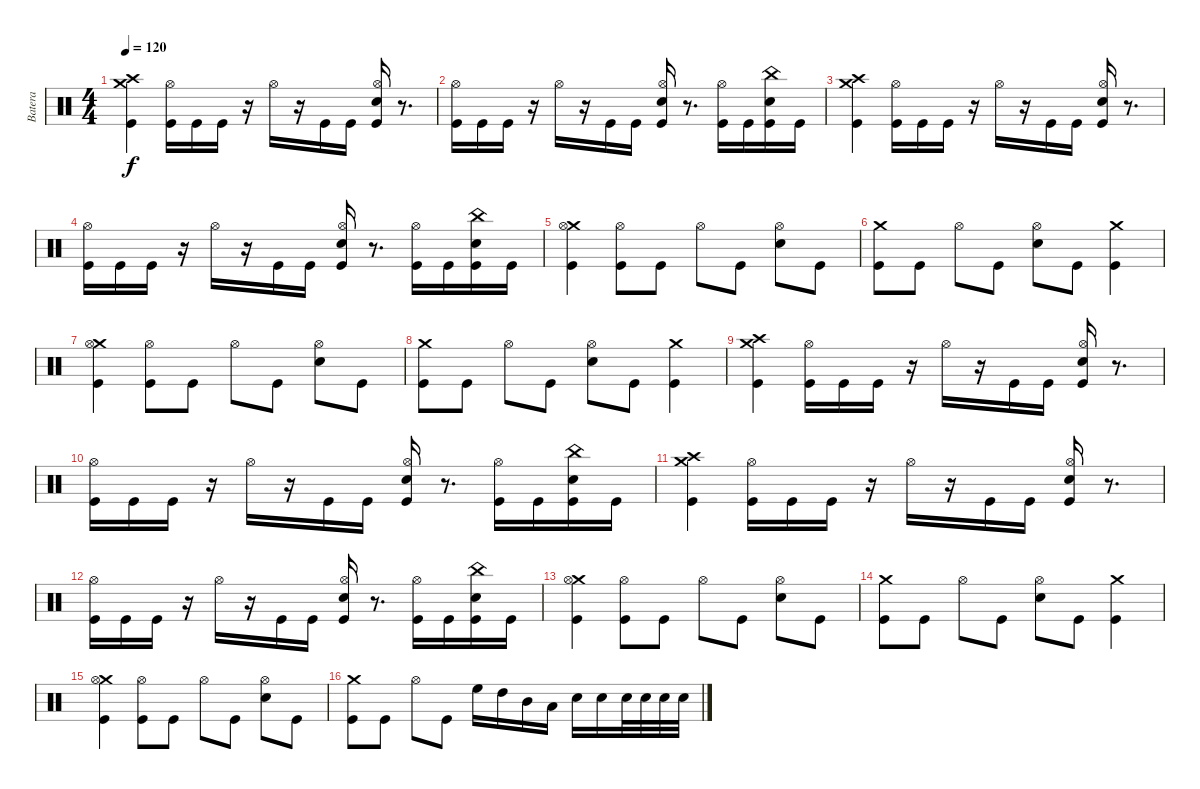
\track ("Batera" "Batera") {instrument percussion}
\staff {score}
\articulation defaults
\ts (4 4)
\tempo 120
\clef neutral
\ks c
("Crash medium (hit)" "Crash high (hit)" "Kick (hit)").4{dy f} ("Hi-Hat (open)" "Kick (hit)").16 "Kick (hit)".16 "Kick (hit)".16 r.16 "Hi-Hat (open)".16 r.16 "Kick (hit)".16 "Kick (hit)".16 ("Hi-Hat (open)" "Snare (hit) 2" "Kick (hit)").16 r.8{d} |
("Hi-Hat (open)" "Kick (hit)").16 "Kick (hit)".16 "Kick (hit)".16 r.16 "Hi-Hat (open)".16 r.16 "Kick (hit)".16 "Kick (hit)".16 ("Hi-Hat (open)" "Snare (hit) 2" "Kick (hit)").16 r.8{d} ("Hi-Hat (open)" "Kick (hit)").16 "Kick (hit)".16 ("China (hit)" "Snare (hit) 2" "Kick (hit)").16 "Kick (hit)".16 |
("Crash medium (hit)" "Crash high (hit)" "Kick (hit)").4 ("Hi-Hat (open)" "Kick (hit)").16 "Kick (hit)".16 "Kick (hit)".16 r.16 "Hi-Hat (open)".16 r.16 "Kick (hit)".16 "Kick (hit)".16 ("Hi-Hat (open)" "Snare (hit) 2" "Kick (hit)").16 r.8{d} |
("Hi-Hat (open)" "Kick (hit)").16 "Kick (hit)".16 "Kick (hit)".16 r.16 "Hi-Hat (open)".16 r.16 "Kick (hit)".16 "Kick (hit)".16 ("Hi-Hat (open)" "Snare (hit) 2" "Kick (hit)").16 r.8{d} ("Hi-Hat (open)" "Kick (hit)").16 "Kick (hit)".16 ("China (hit)" "Snare (hit) 2" "Kick (hit)").16 "Kick (hit)".16 |
("Crash medium (hit)" "Hi-Hat (open)" "Kick (hit)").4 ("Hi-Hat (open)" "Kick (hit)").8 "Kick (hit)".8 "Hi-Hat (open)".8 "Kick (hit)".8 ("Hi-Hat (open)" "Snare (hit) 2").8 "Kick (hit)".8 |
("Crash medium (hit)" "Kick (hit)").8 "Kick (hit)".8 "Hi-Hat (open)".8 "Kick (hit)".8 ("Hi-Hat (open)" "Snare (hit) 2").8 "Kick (hit)".8 ("Crash medium (hit)" "Kick (hit)").4 |
("Crash medium (hit)" "Hi-Hat (open)" "Kick (hit)").4 ("Hi-Hat (open)" "Kick (hit)").8 "Kick (hit)".8 "Hi-Hat (open)".8 "Kick (hit)".8 ("Hi-Hat (open)" "Snare (hit) 2").8 "Kick (hit)".8 |
("Crash medium (hit)" "Kick (hit)").8 "Kick (hit)".8 "Hi-Hat (open)".8 "Kick (hit)".8 ("Hi-Hat (open)" "Snare (hit) 2").8 "Kick (hit)".8 ("Crash medium (hit)" "Kick (hit)").4 |
("Crash medium (hit)" "Crash high (hit)" "Kick (hit)").4 ("Hi-Hat (open)" "Kick (hit)").16 "Kick (hit)".16 "Kick (hit)".16 r.16 "Hi-Hat (open)".16 r.16 "Kick (hit)".16 "Kick (hit)".16 ("Hi-Hat (open)" "Snare (hit) 2" "Kick (hit)").16 r.8{d} |
("Hi-Hat (open)" "Kick (hit)").16 "Kick (hit)".16 "Kick (hit)".16 r.16 "Hi-Hat (open)".16 r.16 "Kick (hit)".16 "Kick (hit)".16 ("Hi-Hat (open)" "Snare (hit) 2" "Kick (hit)").16 r.8{d} ("Hi-Hat (open)" "Kick (hit)").16 "Kick (hit)".16 ("China (hit)" "Snare (hit) 2" "Kick (hit)").16 "Kick (hit)".16 |
("Crash medium (hit)" "Crash high (hit)" "Kick (hit)").4 ("Hi-Hat (open)" "Kick (hit)").16 "Kick (hit)".16 "Kick (hit)".16 r.16 "Hi-Hat (open)".16 r.16 "Kick (hit)".16 "Kick (hit)".16 ("Hi-Hat (open)" "Snare (hit) 2" "Kick (hit)").16 r.8{d} |
("Hi-Hat (open)" "Kick (hit)").16 "Kick (hit)".16 "Kick (hit)".16 r.16 "Hi-Hat (open)".16 r.16 "Kick (hit)".16 "Kick (hit)".16 ("Hi-Hat (open)" "Snare (hit) 2" "Kick (hit)").16 r.8{d} ("Hi-Hat (open)" "Kick (hit)").16 "Kick (hit)".16 ("China (hit)" "Snare (hit) 2" "Kick (hit)").16 "Kick (hit)".16 |
("Crash medium (hit)" "Hi-Hat (open)" "Kick (hit)").4 ("Hi-Hat (open)" "Kick (hit)").8 "Kick (hit)".8 "Hi-Hat (open)".8 "Kick (hit)".8 ("Hi-Hat (open)" "Snare (hit) 2").8 "Kick (hit)".8 |
("Crash medium (hit)" "Kick (hit)").8 "Kick (hit)".8 "Hi-Hat (open)".8 "Kick (hit)".8 ("Hi-Hat (open)" "Snare (hit) 2").8 "Kick (hit)".8 ("Crash medium (hit)" "Kick (hit)").4 |
("Crash medium (hit)" "Hi-Hat (open)" "Kick (hit)").4 ("Hi-Hat (open)" "Kick (hit)").8 "Kick (hit)".8 "Hi-Hat (open)".8 "Kick (hit)".8 ("Hi-Hat (open)" "Snare (hit) 2").8 "Kick (hit)".8 |
("Crash medium (hit)" "Kick (hit)").8 "Kick (hit)".8 "Hi-Hat (open)".8 "Kick (hit)".8 "High Floor Tom (hit)".16 "High Tom (hit)".16 "Mid Tom (hit)".16 "Low Tom (hit)".16 "Snare (hit) 2".16 "Snare (hit) 2".16 "Snare (hit) 2".32 "Snare (hit) 2".32 "Snare (hit) 2".32 "Snare (hit) 2".32
